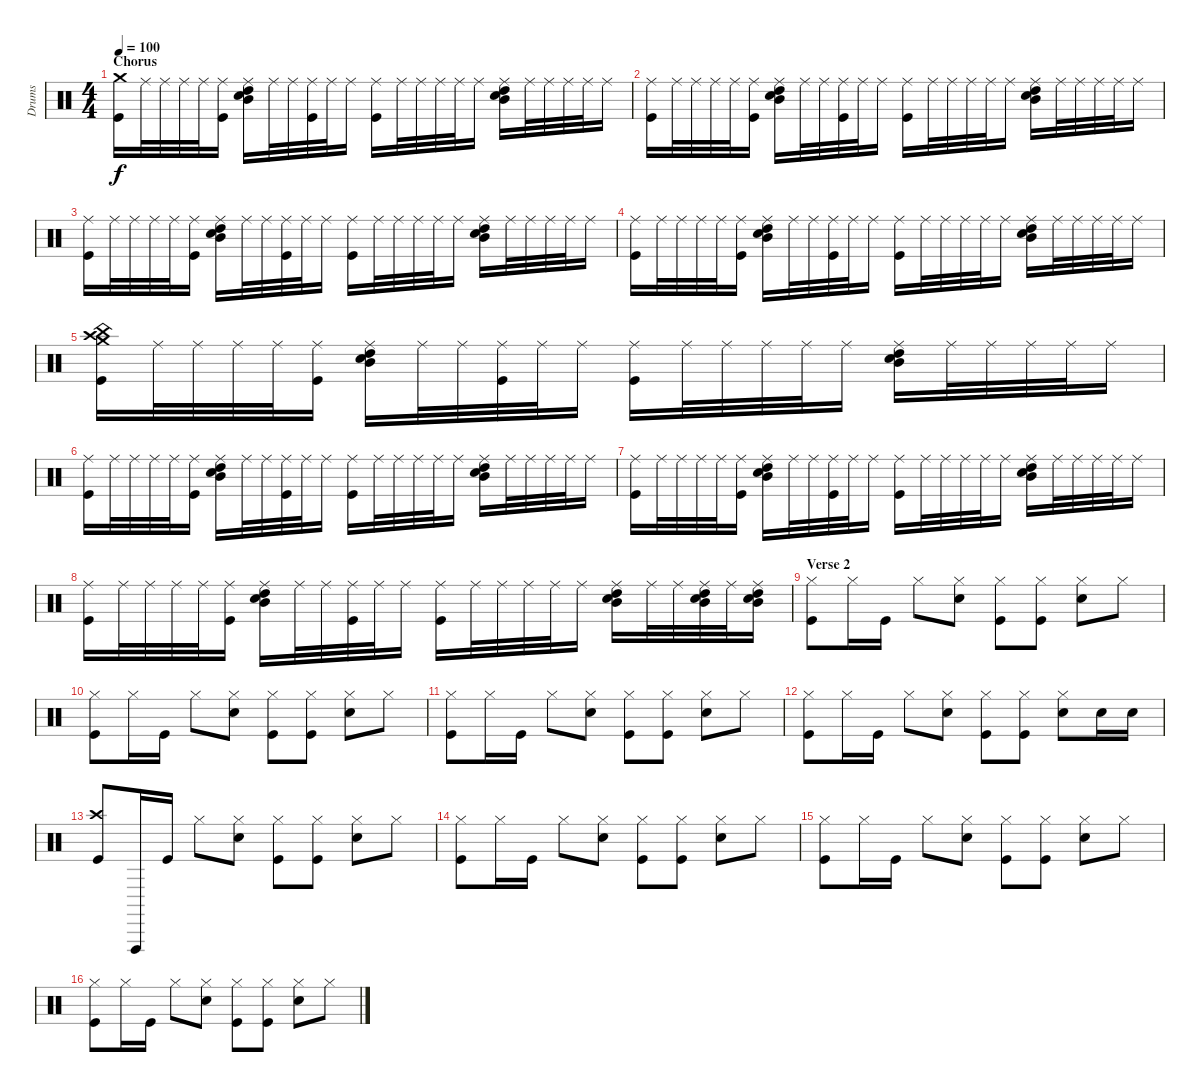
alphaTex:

\track ("Drums" "Drums") {instrument percussion}
\staff {score}
\articulation defaults
\ts (4 4)
\section ("" "Chorus")
\tempo 100
\clef neutral
\ks c
("Crash medium (hit)" "Kick (hit)").16{dy f} "Ride (middle)".32 "Ride (middle)".32 "Ride (middle)".32 "Ride (middle)".32 ("Ride (middle)" "Kick (hit)").16 ("Ride (middle)" "Snare (hit) 2" "High Tom (hit)" "Mid Tom (hit)").16 "Ride (middle)".32 "Ride (middle)".32 ("Ride (middle)" "Kick (hit)").32 "Ride (middle)".32 "Ride (middle)".16 ("Ride (middle)" "Kick (hit)").16 "Ride (middle)".32 "Ride (middle)".32 "Ride (middle)".32 "Ride (middle)".32 "Ride (middle)".16 ("Ride (middle)" "Snare (hit) 2" "High Tom (hit)" "Mid Tom (hit)").16 "Ride (middle)".32 "Ride (middle)".32 "Ride (middle)".32 "Ride (middle)".32 "Ride (middle)".16 |
("Ride (middle)" "Kick (hit)").16 "Ride (middle)".32 "Ride (middle)".32 "Ride (middle)".32 "Ride (middle)".32 ("Ride (middle)" "Kick (hit)").16 ("Ride (middle)" "Snare (hit) 2" "High Tom (hit)" "Mid Tom (hit)").16 "Ride (middle)".32 "Ride (middle)".32 ("Ride (middle)" "Kick (hit)").32 "Ride (middle)".32 "Ride (middle)".16 ("Ride (middle)" "Kick (hit)").16 "Ride (middle)".32 "Ride (middle)".32 "Ride (middle)".32 "Ride (middle)".32 "Ride (middle)".16 ("Ride (middle)" "Snare (hit) 2" "High Tom (hit)" "Mid Tom (hit)").16 "Ride (middle)".32 "Ride (middle)".32 "Ride (middle)".32 "Ride (middle)".32 "Ride (middle)".16 |
("Ride (middle)" "Kick (hit)").16 "Ride (middle)".32 "Ride (middle)".32 "Ride (middle)".32 "Ride (middle)".32 ("Ride (middle)" "Kick (hit)").16 ("Ride (middle)" "Snare (hit) 2" "High Tom (hit)" "Mid Tom (hit)").16 "Ride (middle)".32 "Ride (middle)".32 ("Ride (middle)" "Kick (hit)").32 "Ride (middle)".32 "Ride (middle)".16 ("Ride (middle)" "Kick (hit)").16 "Ride (middle)".32 "Ride (middle)".32 "Ride (middle)".32 "Ride (middle)".32 "Ride (middle)".16 ("Ride (middle)" "Snare (hit) 2" "High Tom (hit)" "Mid Tom (hit)").16 "Ride (middle)".32 "Ride (middle)".32 "Ride (middle)".32 "Ride (middle)".32 "Ride (middle)".16 |
("Ride (middle)" "Kick (hit)").16 "Ride (middle)".32 "Ride (middle)".32 "Ride (middle)".32 "Ride (middle)".32 ("Ride (middle)" "Kick (hit)").16 ("Ride (middle)" "Snare (hit) 2" "High Tom (hit)" "Mid Tom (hit)").16 "Ride (middle)".32 "Ride (middle)".32 ("Ride (middle)" "Kick (hit)").32 "Ride (middle)".32 "Ride (middle)".16 ("Ride (middle)" "Kick (hit)").16 "Ride (middle)".32 "Ride (middle)".32 "Ride (middle)".32 "Ride (middle)".32 "Ride (middle)".16 ("Ride (middle)" "Snare (hit) 2" "High Tom (hit)" "Mid Tom (hit)").16 "Ride (middle)".32 "Ride (middle)".32 "Ride (middle)".32 "Ride (middle)".32 "Ride (middle)".16 |
("Crash medium (hit)" "Crash high (hit)" "China (hit)" "Kick (hit)").16 "Ride (middle)".32 "Ride (middle)".32 "Ride (middle)".32 "Ride (middle)".32 ("Ride (middle)" "Kick (hit)").16 ("Ride (middle)" "Snare (hit) 2" "High Tom (hit)" "Mid Tom (hit)").16 "Ride (middle)".32 "Ride (middle)".32 ("Ride (middle)" "Kick (hit)").32 "Ride (middle)".32 "Ride (middle)".16 ("Ride (middle)" "Kick (hit)").16 "Ride (middle)".32 "Ride (middle)".32 "Ride (middle)".32 "Ride (middle)".32 "Ride (middle)".16 ("Ride (middle)" "Snare (hit) 2" "High Tom (hit)" "Mid Tom (hit)").16 "Ride (middle)".32 "Ride (middle)".32 "Ride (middle)".32 "Ride (middle)".32 "Ride (middle)".16 |
("Ride (middle)" "Kick (hit)").16 "Ride (middle)".32 "Ride (middle)".32 "Ride (middle)".32 "Ride (middle)".32 ("Ride (middle)" "Kick (hit)").16 ("Ride (middle)" "Snare (hit) 2" "High Tom (hit)" "Mid Tom (hit)").16 "Ride (middle)".32 "Ride (middle)".32 ("Ride (middle)" "Kick (hit)").32 "Ride (middle)".32 "Ride (middle)".16 ("Ride (middle)" "Kick (hit)").16 "Ride (middle)".32 "Ride (middle)".32 "Ride (middle)".32 "Ride (middle)".32 "Ride (middle)".16 ("Ride (middle)" "Snare (hit) 2" "High Tom (hit)" "Mid Tom (hit)").16 "Ride (middle)".32 "Ride (middle)".32 "Ride (middle)".32 "Ride (middle)".32 "Ride (middle)".16 |
("Ride (middle)" "Kick (hit)").16 "Ride (middle)".32 "Ride (middle)".32 "Ride (middle)".32 "Ride (middle)".32 ("Ride (middle)" "Kick (hit)").16 ("Ride (middle)" "Snare (hit) 2" "High Tom (hit)" "Mid Tom (hit)").16 "Ride (middle)".32 "Ride (middle)".32 ("Ride (middle)" "Kick (hit)").32 "Ride (middle)".32 "Ride (middle)".16 ("Ride (middle)" "Kick (hit)").16 "Ride (middle)".32 "Ride (middle)".32 "Ride (middle)".32 "Ride (middle)".32 "Ride (middle)".16 ("Ride (middle)" "Snare (hit) 2" "High Tom (hit)" "Mid Tom (hit)").16 "Ride (middle)".32 "Ride (middle)".32 "Ride (middle)".32 "Ride (middle)".32 "Ride (middle)".16 |
("Ride (middle)" "Kick (hit)").16 "Ride (middle)".32 "Ride (middle)".32 "Ride (middle)".32 "Ride (middle)".32 ("Ride (middle)" "Kick (hit)").16 ("Ride (middle)" "Snare (hit) 2" "High Tom (hit)" "Mid Tom (hit)").16 "Ride (middle)".32 "Ride (middle)".32 ("Ride (middle)" "Kick (hit)").32 "Ride (middle)".32 "Ride (middle)".16 ("Ride (middle)" "Kick (hit)").16 "Ride (middle)".32 "Ride (middle)".32 "Ride (middle)".32 "Ride (middle)".32 "Ride (middle)".16 ("Ride (middle)" "Snare (hit) 2" "High Tom (hit)" "Mid Tom (hit)").16 "Ride (middle)".32 "Ride (middle)".32 ("Ride (middle)" "Snare (hit) 2" "High Tom (hit)" "Mid Tom (hit)").32 "Ride (middle)".32 ("Ride (middle)" "Snare (hit) 2" "High Tom (hit)" "Mid Tom (hit)").16 |
\section ("" "Verse 2")
("Hi-Hat (closed)" "Kick (hit)").8 "Hi-Hat (closed)".16 "Kick (hit)".16 "Hi-Hat (closed)".8 ("Hi-Hat (closed)" "Electric Snare (hit)").8 ("Hi-Hat (closed)" "Kick (hit)").8 ("Hi-Hat (closed)" "Kick (hit)").8 ("Hi-Hat (closed)" "Electric Snare (hit)").8 "Hi-Hat (closed)".8 |
("Hi-Hat (closed)" "Kick (hit)").8 "Hi-Hat (closed)".16 "Kick (hit)".16 "Hi-Hat (closed)".8 ("Hi-Hat (closed)" "Electric Snare (hit)").8 ("Hi-Hat (closed)" "Kick (hit)").8 ("Hi-Hat (closed)" "Kick (hit)").8 ("Hi-Hat (closed)" "Electric Snare (hit)").8 "Hi-Hat (closed)".8 |
("Hi-Hat (closed)" "Kick (hit)").8 "Hi-Hat (closed)".16 "Kick (hit)".16 "Hi-Hat (closed)".8 ("Hi-Hat (closed)" "Electric Snare (hit)").8 ("Hi-Hat (closed)" "Kick (hit)").8 ("Hi-Hat (closed)" "Kick (hit)").8 ("Hi-Hat (closed)" "Electric Snare (hit)").8 "Hi-Hat (closed)".8 |
("Hi-Hat (closed)" "Kick (hit)").8 "Hi-Hat (closed)".16 "Kick (hit)".16 "Hi-Hat (closed)".8 ("Hi-Hat (closed)" "Electric Snare (hit)").8 ("Hi-Hat (closed)" "Kick (hit)").8 ("Hi-Hat (closed)" "Kick (hit)").8 ("Hi-Hat (closed)" "Electric Snare (hit)").8 "Electric Snare (hit)".16 "Electric Snare (hit)".16 |
("Crash high (hit)" "Kick (hit)").8 "Vibraslap (hit)".16 "Kick (hit)".16 "Hi-Hat (closed)".8 ("Hi-Hat (closed)" "Electric Snare (hit)").8 ("Hi-Hat (closed)" "Kick (hit)").8 ("Hi-Hat (closed)" "Kick (hit)").8 ("Hi-Hat (closed)" "Electric Snare (hit)").8 "Hi-Hat (closed)".8 |
("Hi-Hat (closed)" "Kick (hit)").8 "Hi-Hat (closed)".16 "Kick (hit)".16 "Hi-Hat (closed)".8 ("Hi-Hat (closed)" "Electric Snare (hit)").8 ("Hi-Hat (closed)" "Kick (hit)").8 ("Hi-Hat (closed)" "Kick (hit)").8 ("Hi-Hat (closed)" "Electric Snare (hit)").8 "Hi-Hat (closed)".8 |
("Hi-Hat (closed)" "Kick (hit)").8 "Hi-Hat (closed)".16 "Kick (hit)".16 "Hi-Hat (closed)".8 ("Hi-Hat (closed)" "Electric Snare (hit)").8 ("Hi-Hat (closed)" "Kick (hit)").8 ("Hi-Hat (closed)" "Kick (hit)").8 ("Hi-Hat (closed)" "Electric Snare (hit)").8 "Hi-Hat (closed)".8 |
("Hi-Hat (closed)" "Kick (hit)").8 "Hi-Hat (closed)".16 "Kick (hit)".16 "Hi-Hat (closed)".8 ("Hi-Hat (closed)" "Electric Snare (hit)").8 ("Hi-Hat (closed)" "Kick (hit)").8 ("Hi-Hat (closed)" "Kick (hit)").8 ("Hi-Hat (closed)" "Electric Snare (hit)").8 "Hi-Hat (closed)".8
